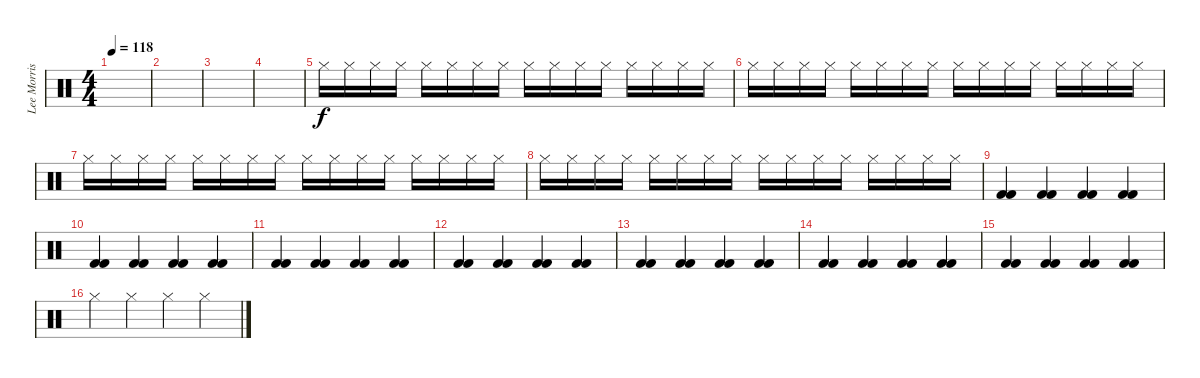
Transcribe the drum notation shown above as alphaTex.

\track ("Lee Morris" "Lee Morris") {instrument percussion}
\staff {score}
\articulation defaults
\ts (4 4)
\tempo 118
\clef neutral
\ks c
|
|
|
|
"Hi-Hat (closed)".16 "Hi-Hat (closed)".16 "Hi-Hat (closed)".16 "Hi-Hat (closed)".16 "Hi-Hat (closed)".16 "Hi-Hat (closed)".16 "Hi-Hat (closed)".16 "Hi-Hat (closed)".16 "Hi-Hat (closed)".16 "Hi-Hat (closed)".16 "Hi-Hat (closed)".16 "Hi-Hat (closed)".16 "Hi-Hat (closed)".16 "Hi-Hat (closed)".16 "Hi-Hat (closed)".16 "Hi-Hat (closed)".16 |
"Hi-Hat (closed)".16 "Hi-Hat (closed)".16 "Hi-Hat (closed)".16 "Hi-Hat (closed)".16 "Hi-Hat (closed)".16 "Hi-Hat (closed)".16 "Hi-Hat (closed)".16 "Hi-Hat (closed)".16 "Hi-Hat (closed)".16 "Hi-Hat (closed)".16 "Hi-Hat (closed)".16 "Hi-Hat (closed)".16 "Hi-Hat (closed)".16 "Hi-Hat (closed)".16 "Hi-Hat (closed)".16 "Hi-Hat (closed)".16 |
"Hi-Hat (closed)".16 "Hi-Hat (closed)".16 "Hi-Hat (closed)".16 "Hi-Hat (closed)".16 "Hi-Hat (closed)".16 "Hi-Hat (closed)".16 "Hi-Hat (closed)".16 "Hi-Hat (closed)".16 "Hi-Hat (closed)".16 "Hi-Hat (closed)".16 "Hi-Hat (closed)".16 "Hi-Hat (closed)".16 "Hi-Hat (closed)".16 "Hi-Hat (closed)".16 "Hi-Hat (closed)".16 "Hi-Hat (closed)".16 |
"Hi-Hat (closed)".16 "Hi-Hat (closed)".16 "Hi-Hat (closed)".16 "Hi-Hat (closed)".16 "Hi-Hat (closed)".16 "Hi-Hat (closed)".16 "Hi-Hat (closed)".16 "Hi-Hat (closed)".16 "Hi-Hat (closed)".16 "Hi-Hat (closed)".16 "Hi-Hat (closed)".16 "Hi-Hat (closed)".16 "Hi-Hat (closed)".16 "Hi-Hat (closed)".16 "Hi-Hat (closed)".16 "Hi-Hat (closed)".16 |
("Kick (hit) 2" "Kick (hit) 2").4 ("Kick (hit) 2" "Kick (hit) 2").4 ("Kick (hit) 2" "Kick (hit) 2").4 ("Kick (hit) 2" "Kick (hit) 2").4 |
("Kick (hit) 2" "Kick (hit) 2").4 ("Kick (hit) 2" "Kick (hit) 2").4 ("Kick (hit) 2" "Kick (hit) 2").4 ("Kick (hit) 2" "Kick (hit) 2").4 |
("Kick (hit) 2" "Kick (hit) 2").4 ("Kick (hit) 2" "Kick (hit) 2").4 ("Kick (hit) 2" "Kick (hit) 2").4 ("Kick (hit) 2" "Kick (hit) 2").4 |
("Kick (hit) 2" "Kick (hit) 2").4 ("Kick (hit) 2" "Kick (hit) 2").4 ("Kick (hit) 2" "Kick (hit) 2").4 ("Kick (hit) 2" "Kick (hit) 2").4 |
("Kick (hit) 2" "Kick (hit) 2").4 ("Kick (hit) 2" "Kick (hit) 2").4 ("Kick (hit) 2" "Kick (hit) 2").4 ("Kick (hit) 2" "Kick (hit) 2").4 |
("Kick (hit) 2" "Kick (hit) 2").4 ("Kick (hit) 2" "Kick (hit) 2").4 ("Kick (hit) 2" "Kick (hit) 2").4 ("Kick (hit) 2" "Kick (hit) 2").4 |
("Kick (hit) 2" "Kick (hit) 2").4 ("Kick (hit) 2" "Kick (hit) 2").4 ("Kick (hit) 2" "Kick (hit) 2").4 ("Kick (hit) 2" "Kick (hit) 2").4 |
"Hi-Hat (closed)".4 "Hi-Hat (closed)".4 "Hi-Hat (closed)".4 "Hi-Hat (closed)".4
